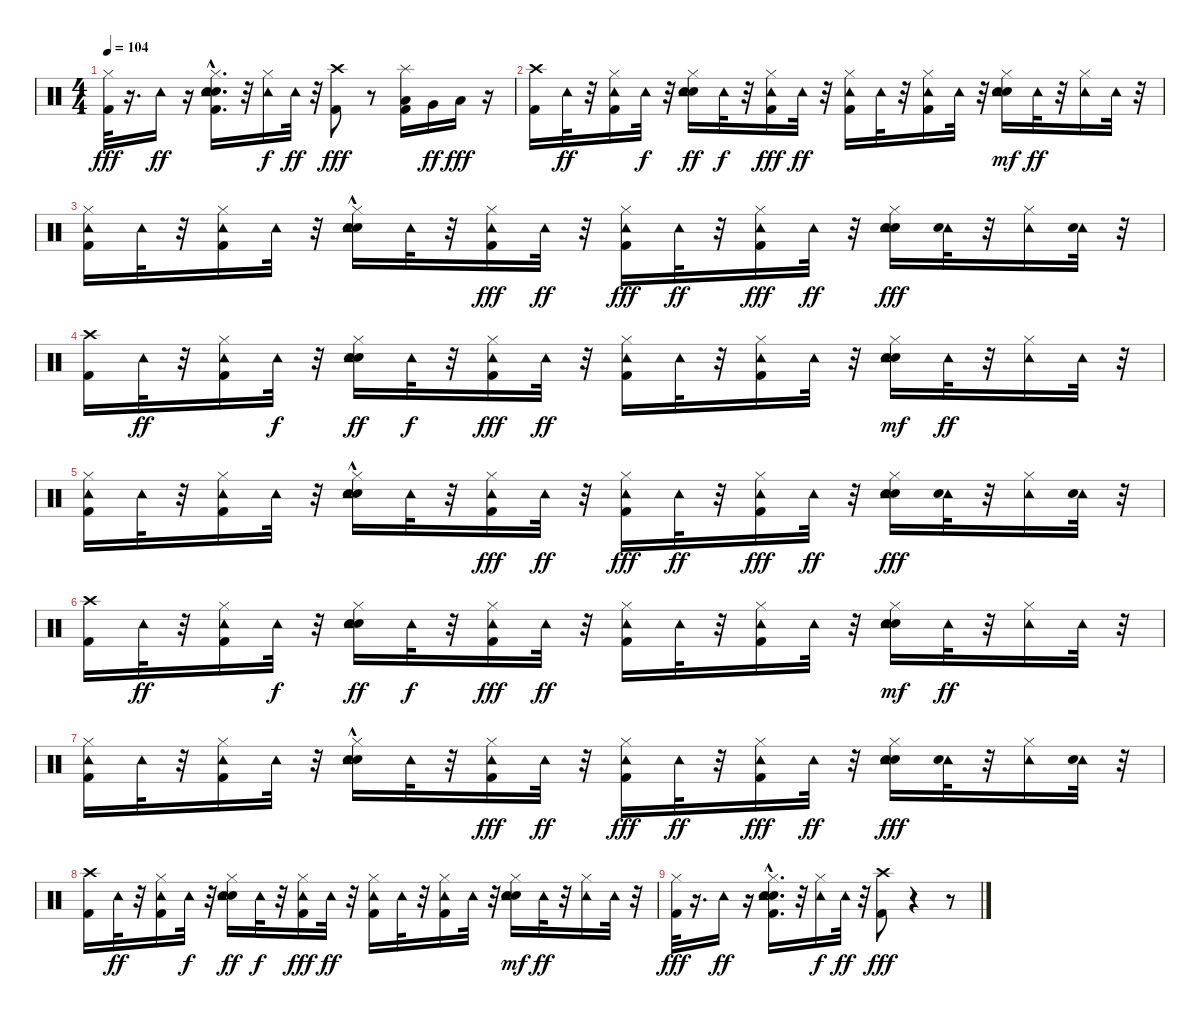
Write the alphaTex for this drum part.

\track "" {instrument percussion}
\staff {score}
\articulation defaults
\ts (4 4)
\tempo 104
\clef neutral
\ks c
("Hi-Hat (closed)" "Kick (hit) 2").32{dy fff} r.16{d} "Tambourine (hit)".16{dy ff} r.16 ("Hi-Hat (closed)" "Hand Clap (hit)" "Kick (hit) 2" "Snare (hit) 2"{hac} "Tambourine (hit)").16{d} r.32 ("Hi-Hat (closed)" "Tambourine (hit)").16{dy f} "Tambourine (hit)".32{dy ff} r.32 ("Kick (hit) 2" "Crash high (hit)").8{dy fff} r.8 ("Low Tom (hit)" "Splash (hit)" "Kick (hit) 2").16 "Very Low Tom (hit)".16{dy ff} "Low Floor Tom (hit)".16{dy fff} r.16 |
("Kick (hit) 2" "Crash high (hit)").16 "Tambourine (hit)".32{dy ff} r.32 ("Hi-Hat (closed)" "Kick (hit) 2" "Tambourine (hit)").16 "Tambourine (hit)".32{dy f} r.32 ("Hi-Hat (closed)" "Hand Clap (hit)" "Snare (hit) 2" "Tambourine (hit)").16{dy ff} "Tambourine (hit)".32{dy f} r.32 ("Hi-Hat (closed)" "Kick (hit) 2" "Tambourine (hit)").16{dy fff} "Tambourine (hit)".32{dy ff} r.32 ("Hi-Hat (closed)" "Kick (hit) 2" "Tambourine (hit)").16 "Tambourine (hit)".32 r.32 ("Hi-Hat (closed)" "Kick (hit) 2" "Tambourine (hit)").16 "Tambourine (hit)".32 r.32 ("Hi-Hat (closed)" "Hand Clap (hit)" "Snare (hit) 2" "Tambourine (hit)").16{dy mf} "Tambourine (hit)".32{dy ff} r.32 ("Hi-Hat (closed)" "Tambourine (hit)").16 "Tambourine (hit)".32 r.32 |
("Hi-Hat (closed)" "Kick (hit) 2" "Tambourine (hit)").16 "Tambourine (hit)".32 r.32 ("Hi-Hat (closed)" "Kick (hit) 2" "Tambourine (hit)").16 "Tambourine (hit)".32 r.32 ("Hi-Hat (closed)" "Hand Clap (hit)" "Snare (hit) 2"{hac} "Tambourine (hit)").16 "Tambourine (hit)".32 r.32 ("Hi-Hat (closed)" "Kick (hit) 2" "Tambourine (hit)").16{dy fff} "Tambourine (hit)".32{dy ff} r.32 ("Hi-Hat (closed)" "Kick (hit) 2" "Tambourine (hit)").16{dy fff} "Tambourine (hit)".32{dy ff} r.32 ("Hi-Hat (closed)" "Kick (hit) 2" "Tambourine (hit)").16{dy fff} "Tambourine (hit)".32{dy ff} r.32 ("Hand Clap (hit)" "Hi-Hat (closed)" "Snare (hit) 2" "Tambourine (hit)").16{dy fff} ("Tambourine (hit)" "Electric Snare (hit)").32 r.32 ("Hi-Hat (closed)" "Tambourine (hit)").16 ("Tambourine (hit)" "Electric Snare (hit)").32 r.32 |
("Kick (hit) 2" "Crash high (hit)").16 "Tambourine (hit)".32{dy ff} r.32 ("Hi-Hat (closed)" "Kick (hit) 2" "Tambourine (hit)").16 "Tambourine (hit)".32{dy f} r.32 ("Hi-Hat (closed)" "Hand Clap (hit)" "Snare (hit) 2" "Tambourine (hit)").16{dy ff} "Tambourine (hit)".32{dy f} r.32 ("Hi-Hat (closed)" "Kick (hit) 2" "Tambourine (hit)").16{dy fff} "Tambourine (hit)".32{dy ff} r.32 ("Hi-Hat (closed)" "Kick (hit) 2" "Tambourine (hit)").16 "Tambourine (hit)".32 r.32 ("Hi-Hat (closed)" "Kick (hit) 2" "Tambourine (hit)").16 "Tambourine (hit)".32 r.32 ("Hi-Hat (closed)" "Hand Clap (hit)" "Snare (hit) 2" "Tambourine (hit)").16{dy mf} "Tambourine (hit)".32{dy ff} r.32 ("Hi-Hat (closed)" "Tambourine (hit)").16 "Tambourine (hit)".32 r.32 |
("Hi-Hat (closed)" "Kick (hit) 2" "Tambourine (hit)").16 "Tambourine (hit)".32 r.32 ("Hi-Hat (closed)" "Kick (hit) 2" "Tambourine (hit)").16 "Tambourine (hit)".32 r.32 ("Hi-Hat (closed)" "Hand Clap (hit)" "Snare (hit) 2"{hac} "Tambourine (hit)").16 "Tambourine (hit)".32 r.32 ("Hi-Hat (closed)" "Kick (hit) 2" "Tambourine (hit)").16{dy fff} "Tambourine (hit)".32{dy ff} r.32 ("Hi-Hat (closed)" "Kick (hit) 2" "Tambourine (hit)").16{dy fff} "Tambourine (hit)".32{dy ff} r.32 ("Hi-Hat (closed)" "Kick (hit) 2" "Tambourine (hit)").16{dy fff} "Tambourine (hit)".32{dy ff} r.32 ("Hand Clap (hit)" "Hi-Hat (closed)" "Snare (hit) 2" "Tambourine (hit)").16{dy fff} ("Tambourine (hit)" "Electric Snare (hit)").32 r.32 ("Hi-Hat (closed)" "Tambourine (hit)").16 ("Tambourine (hit)" "Electric Snare (hit)").32 r.32 |
("Kick (hit) 2" "Crash high (hit)").16 "Tambourine (hit)".32{dy ff} r.32 ("Hi-Hat (closed)" "Kick (hit) 2" "Tambourine (hit)").16 "Tambourine (hit)".32{dy f} r.32 ("Hi-Hat (closed)" "Hand Clap (hit)" "Snare (hit) 2" "Tambourine (hit)").16{dy ff} "Tambourine (hit)".32{dy f} r.32 ("Hi-Hat (closed)" "Kick (hit) 2" "Tambourine (hit)").16{dy fff} "Tambourine (hit)".32{dy ff} r.32 ("Hi-Hat (closed)" "Kick (hit) 2" "Tambourine (hit)").16 "Tambourine (hit)".32 r.32 ("Hi-Hat (closed)" "Kick (hit) 2" "Tambourine (hit)").16 "Tambourine (hit)".32 r.32 ("Hi-Hat (closed)" "Hand Clap (hit)" "Snare (hit) 2" "Tambourine (hit)").16{dy mf} "Tambourine (hit)".32{dy ff} r.32 ("Hi-Hat (closed)" "Tambourine (hit)").16 "Tambourine (hit)".32 r.32 |
("Hi-Hat (closed)" "Kick (hit) 2" "Tambourine (hit)").16 "Tambourine (hit)".32 r.32 ("Hi-Hat (closed)" "Kick (hit) 2" "Tambourine (hit)").16 "Tambourine (hit)".32 r.32 ("Hi-Hat (closed)" "Hand Clap (hit)" "Snare (hit) 2"{hac} "Tambourine (hit)").16 "Tambourine (hit)".32 r.32 ("Hi-Hat (closed)" "Kick (hit) 2" "Tambourine (hit)").16{dy fff} "Tambourine (hit)".32{dy ff} r.32 ("Hi-Hat (closed)" "Kick (hit) 2" "Tambourine (hit)").16{dy fff} "Tambourine (hit)".32{dy ff} r.32 ("Hi-Hat (closed)" "Kick (hit) 2" "Tambourine (hit)").16{dy fff} "Tambourine (hit)".32{dy ff} r.32 ("Hand Clap (hit)" "Hi-Hat (closed)" "Snare (hit) 2" "Tambourine (hit)").16{dy fff} ("Tambourine (hit)" "Electric Snare (hit)").32 r.32 ("Hi-Hat (closed)" "Tambourine (hit)").16 ("Tambourine (hit)" "Electric Snare (hit)").32 r.32 |
("Kick (hit) 2" "Crash high (hit)").16 "Tambourine (hit)".32{dy ff} r.32 ("Hi-Hat (closed)" "Kick (hit) 2" "Tambourine (hit)").16 "Tambourine (hit)".32{dy f} r.32 ("Hi-Hat (closed)" "Hand Clap (hit)" "Snare (hit) 2" "Tambourine (hit)").16{dy ff} "Tambourine (hit)".32{dy f} r.32 ("Hi-Hat (closed)" "Kick (hit) 2" "Tambourine (hit)").16{dy fff} "Tambourine (hit)".32{dy ff} r.32 ("Hi-Hat (closed)" "Kick (hit) 2" "Tambourine (hit)").16 "Tambourine (hit)".32 r.32 ("Hi-Hat (closed)" "Kick (hit) 2" "Tambourine (hit)").16 "Tambourine (hit)".32 r.32 ("Hi-Hat (closed)" "Hand Clap (hit)" "Snare (hit) 2" "Tambourine (hit)").16{dy mf} "Tambourine (hit)".32{dy ff} r.32 ("Hi-Hat (closed)" "Tambourine (hit)").16 "Tambourine (hit)".32 r.32 |
("Hi-Hat (closed)" "Kick (hit) 2").32{dy fff} r.16{d} "Tambourine (hit)".16{dy ff} r.16 ("Hi-Hat (closed)" "Hand Clap (hit)" "Kick (hit) 2" "Snare (hit) 2"{hac} "Tambourine (hit)").16{d} r.32 ("Hi-Hat (closed)" "Tambourine (hit)").16{dy f} "Tambourine (hit)".32{dy ff} r.32 ("Kick (hit) 2" "Crash high (hit)").8{dy fff} r.4 r.8
